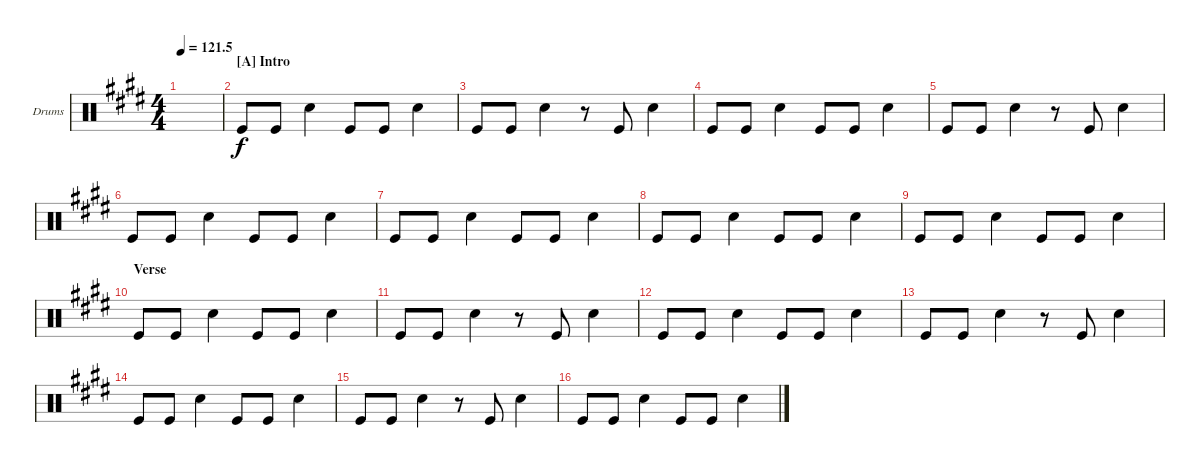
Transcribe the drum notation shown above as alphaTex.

\defaultSystemsLayout 4
\bracketExtendMode groupsimilarinstruments
\firstSystemTrackNameOrientation horizontal
\otherSystemsTrackNameOrientation horizontal
\track ("Drumkit" "Drums") {solo instrument percussion}
\staff {score}
\articulation defaults
\ts (4 4)
\tempo
121.5
\accidentals auto
\clef neutral
\ottava regular
\simile none
\scale
0.474178
\ks e
|
\section ("A" "Intro")
\scale
0.262911 "Kick (hit)".8 "Kick (hit)".8 "Snare (hit) 2".4 "Kick (hit)".8 "Kick (hit)".8 "Snare (hit) 2".4 |
\scale
0.262911 "Kick (hit)".8 "Kick (hit)".8 "Snare (hit) 2".4 r.8 "Kick (hit)".8 "Snare (hit) 2".4 |
\scale
0.333333 "Kick (hit)".8 "Kick (hit)".8 "Snare (hit) 2".4 "Kick (hit)".8 "Kick (hit)".8 "Snare (hit) 2".4 |
\scale
0.333333 "Kick (hit)".8 "Kick (hit)".8 "Snare (hit) 2".4 r.8 "Kick (hit)".8 "Snare (hit) 2".4 |
\scale
0.333333 "Kick (hit)".8 "Kick (hit)".8 "Snare (hit) 2".4 "Kick (hit)".8 "Kick (hit)".8 "Snare (hit) 2".4 |
\scale
0.333333 "Kick (hit)".8 "Kick (hit)".8 "Snare (hit) 2".4 "Kick (hit)".8 "Kick (hit)".8 "Snare (hit) 2".4 |
\scale
0.333333 "Kick (hit)".8 "Kick (hit)".8 "Snare (hit) 2".4 "Kick (hit)".8 "Kick (hit)".8 "Snare (hit) 2".4 |
\scale
0.333333 "Kick (hit)".8 "Kick (hit)".8 "Snare (hit) 2".4 "Kick (hit)".8 "Kick (hit)".8 "Snare (hit) 2".4 |
\section ("" "Verse")
\scale
0.333333 "Kick (hit)".8 "Kick (hit)".8 "Snare (hit) 2".4 "Kick (hit)".8 "Kick (hit)".8 "Snare (hit) 2".4 |
\scale
0.333333 "Kick (hit)".8 "Kick (hit)".8 "Snare (hit) 2".4 r.8 "Kick (hit)".8 "Snare (hit) 2".4 |
\scale
0.333333 "Kick (hit)".8 "Kick (hit)".8 "Snare (hit) 2".4 "Kick (hit)".8 "Kick (hit)".8 "Snare (hit) 2".4 |
\scale
0.333333 "Kick (hit)".8 "Kick (hit)".8 "Snare (hit) 2".4 r.8 "Kick (hit)".8 "Snare (hit) 2".4 |
\scale
0.333333 "Kick (hit)".8 "Kick (hit)".8 "Snare (hit) 2".4 "Kick (hit)".8 "Kick (hit)".8 "Snare (hit) 2".4 |
\scale
0.333333 "Kick (hit)".8 "Kick (hit)".8 "Snare (hit) 2".4 r.8 "Kick (hit)".8 "Snare (hit) 2".4 |
\scale
0.333333 "Kick (hit)".8 "Kick (hit)".8 "Snare (hit) 2".4 "Kick (hit)".8 "Kick (hit)".8 "Snare (hit) 2".4
